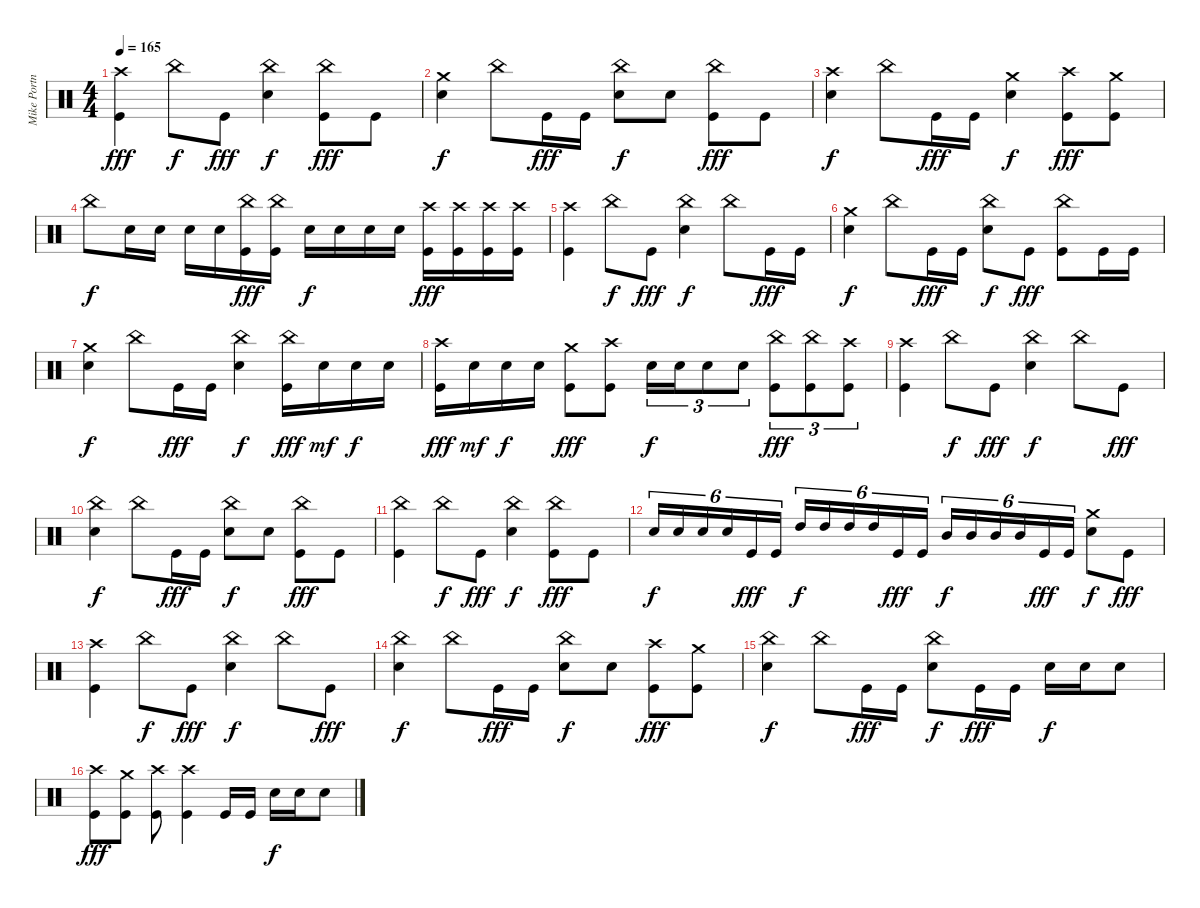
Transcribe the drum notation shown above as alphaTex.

\track ("Mike Portnoy" "Mike Portn") {instrument percussion}
\staff {score}
\articulation defaults
\ts (4 4)
\tempo 165
\clef neutral
\ks c
("Crash high (hit)" "Kick (hit)").4{dy fff} "China (hit)".8{dy f} "Kick (hit)".8{dy fff} ("China (hit)" "Electric Snare (hit)").4{dy f} ("China (hit)" "Kick (hit)").8{dy fff} "Kick (hit)".8 |
("Crash medium (hit)" "Electric Snare (hit)").4{dy f} "China (hit)".8 "Kick (hit)".16{dy fff} "Kick (hit)".16 ("China (hit)" "Electric Snare (hit)").8{dy f} "Electric Snare (hit)".8 ("China (hit)" "Kick (hit)").8{dy fff} "Kick (hit)".8 |
("Crash high (hit)" "Electric Snare (hit)").4{dy f} "China (hit)".8 "Kick (hit)".16{dy fff} "Kick (hit)".16 ("Crash medium (hit)" "Electric Snare (hit)").4{dy f} ("Crash high (hit)" "Kick (hit)").8{dy fff} ("Crash medium (hit)" "Kick (hit)").8 |
"China (hit)".8{dy f} "Electric Snare (hit)".16 "Electric Snare (hit)".16 "Electric Snare (hit)".16 "Electric Snare (hit)".16 ("China (hit)" "Kick (hit)").16{dy fff} ("China (hit)" "Kick (hit)").16 "Electric Snare (hit)".16{dy f} "Electric Snare (hit)".16 "Electric Snare (hit)".16 "Electric Snare (hit)".16 ("Crash high (hit)" "Kick (hit)").16{dy fff} ("Crash high (hit)" "Kick (hit)").16 ("Crash high (hit)" "Kick (hit)").16 ("Crash high (hit)" "Kick (hit)").16 |
("Crash high (hit)" "Kick (hit)").4 "China (hit)".8{dy f} "Kick (hit)".8{dy fff} ("China (hit)" "Electric Snare (hit)").4{dy f} "China (hit)".8 "Kick (hit)".16{dy fff} "Kick (hit)".16 |
("Crash medium (hit)" "Electric Snare (hit)").4{dy f} "China (hit)".8 "Kick (hit)".16{dy fff} "Kick (hit)".16 ("China (hit)" "Electric Snare (hit)").8{dy f} "Kick (hit)".8{dy fff} ("China (hit)" "Kick (hit)").8 "Kick (hit)".16 "Kick (hit)".16 |
("Crash medium (hit)" "Electric Snare (hit)").4{dy f} "China (hit)".8 "Kick (hit)".16{dy fff} "Kick (hit)".16 ("China (hit)" "Electric Snare (hit)").4{dy f} ("China (hit)" "Kick (hit)").16{dy fff} "Electric Snare (hit)".16{dy mf} "Electric Snare (hit)".16{dy f} "Electric Snare (hit)".16 |
("Crash high (hit)" "Kick (hit)").16{dy fff} "Electric Snare (hit)".16{dy mf} "Electric Snare (hit)".16{dy f} "Electric Snare (hit)".16 ("Crash medium (hit)" "Kick (hit)").8{dy fff} ("Crash high (hit)" "Kick (hit)").8 "Electric Snare (hit)".16{tu (3 2) dy f} "Electric Snare (hit)".16{tu (3 2)} "Electric Snare (hit)".8{tu (3 2)} "Electric Snare (hit)".8{tu (3 2)} ("China (hit)" "Kick (hit)").8{tu (3 2) dy fff} ("China (hit)" "Kick (hit)").8{tu (3 2)} ("Crash high (hit)" "Kick (hit)").8{tu (3 2)} |
("Crash high (hit)" "Kick (hit)").4 "China (hit)".8{dy f} "Kick (hit)".8{dy fff} ("China (hit)" "Electric Snare (hit)").4{dy f} "China (hit)".8 "Kick (hit)".8{dy fff} |
("China (hit)" "Electric Snare (hit)").4{dy f} "China (hit)".8 "Kick (hit)".16{dy fff} "Kick (hit)".16 ("China (hit)" "Electric Snare (hit)").8{dy f} "Electric Snare (hit)".8 ("China (hit)" "Kick (hit)").8{dy fff} "Kick (hit)".8 |
("China (hit)" "Kick (hit)").4 "China (hit)".8{dy f} "Kick (hit)".8{dy fff} ("China (hit)" "Electric Snare (hit)").4{dy f} ("China (hit)" "Kick (hit)").8{dy fff} "Kick (hit)".8 |
"Electric Snare (hit)".16{tu (6 4) dy f} "Electric Snare (hit)".16{tu (6 4)} "Electric Snare (hit)".16{tu (6 4)} "Electric Snare (hit)".16{tu (6 4)} "Kick (hit)".16{tu (6 4) dy fff} "Kick (hit)".16{tu (6 4)} "High Tom (hit)".16{tu (6 4) dy f} "High Tom (hit)".16{tu (6 4)} "High Tom (hit)".16{tu (6 4)} "High Tom (hit)".16{tu (6 4)} "Kick (hit)".16{tu (6 4) dy fff} "Kick (hit)".16{tu (6 4)} "Mid Tom (hit)".16{tu (6 4) dy f} "Mid Tom (hit)".16{tu (6 4)} "Mid Tom (hit)".16{tu (6 4)} "Mid Tom (hit)".16{tu (6 4)} "Kick (hit)".16{tu (6 4) dy fff} "Kick (hit)".16{tu (6 4)} ("Crash medium (hit)" "Electric Snare (hit)").8{dy f} "Kick (hit)".8{dy fff} |
("Crash high (hit)" "Kick (hit)").4 "China (hit)".8{dy f} "Kick (hit)".8{dy fff} ("China (hit)" "Electric Snare (hit)").4{dy f} "China (hit)".8 "Kick (hit)".8{dy fff} |
("China (hit)" "Electric Snare (hit)").4{dy f} "China (hit)".8 "Kick (hit)".16{dy fff} "Kick (hit)".16 ("China (hit)" "Electric Snare (hit)").8{dy f} "Electric Snare (hit)".8 ("Crash high (hit)" "Kick (hit)").8{dy fff} ("Crash medium (hit)" "Kick (hit)").8 |
("China (hit)" "Electric Snare (hit)").4{dy f} "China (hit)".8 "Kick (hit)".16{dy fff} "Kick (hit)".16 ("China (hit)" "Electric Snare (hit)").8{dy f} "Kick (hit)".16{dy fff} "Kick (hit)".16 "Electric Snare (hit)".16{dy f} "Electric Snare (hit)".16 "Electric Snare (hit)".8 |
("Crash high (hit)" "Kick (hit)").8{dy fff} ("Crash medium (hit)" "Kick (hit)").8 ("Crash high (hit)" "Kick (hit)").8 ("Crash high (hit)" "Kick (hit)").4 "Kick (hit)".16 "Kick (hit)".16 "Electric Snare (hit)".16{dy f} "Electric Snare (hit)".16 "Electric Snare (hit)".8
